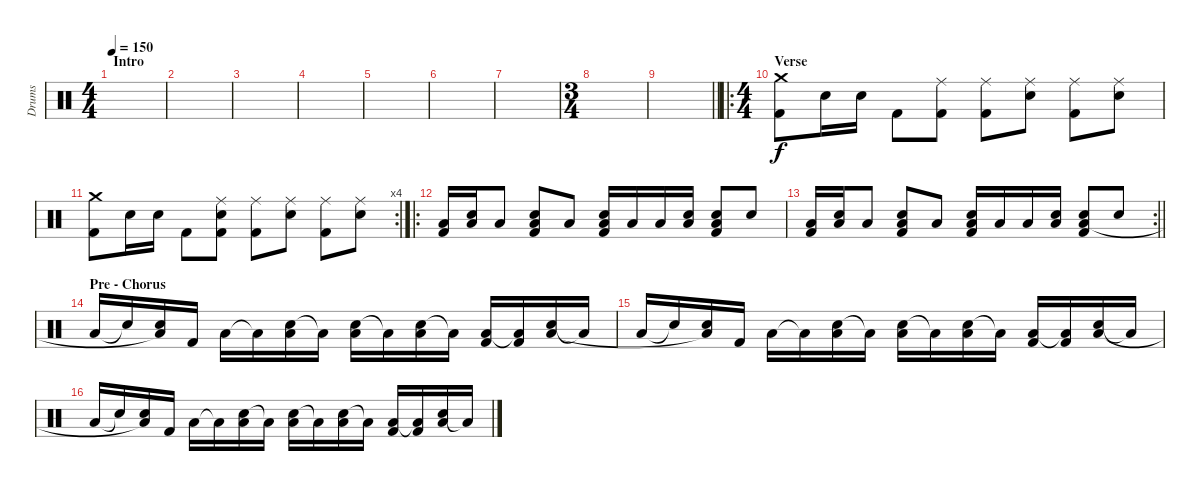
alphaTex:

\track ("Drums" "Drums") {instrument percussion}
\staff {score}
\articulation defaults
\ts (4 4)
\section ("" "Intro")
\tempo 150
\clef neutral
\ks c
|
|
|
|
|
|
|
\ts (3 4)
|
\barLineRight lightlight
|
\ro
\ts (4 4)
\section ("" "Verse")
("Crash medium (hit)" "Kick (hit) 2").8 "Electric Snare (hit)".16 "Snare (hit) 2".16 "Kick (hit) 2".8 ("Ride (middle)" "Kick (hit) 2").8 ("Ride (middle)" "Kick (hit) 2").8 ("Ride (middle)" "Electric Snare (hit)").8 ("Ride (middle)" "Kick (hit) 2").8 ("Ride (middle)" "Electric Snare (hit)").8 |
\rc 4
("Crash medium (hit)" "Kick (hit) 2").8 "Electric Snare (hit)".16 "Snare (hit) 2".16 "Kick (hit) 2".8 ("Ride (middle)" "Electric Snare (hit)" "Kick (hit) 2").8 ("Ride (middle)" "Kick (hit) 2").8 ("Ride (middle)" "Electric Snare (hit)").8 ("Ride (middle)" "Kick (hit) 2").8 ("Ride (middle)" "Electric Snare (hit)").8 |
\ro
("Low Floor Tom (hit)" "Kick (hit) 2").16 ("Electric Snare (hit)" "Low Floor Tom (hit)").16 "Low Floor Tom (hit)".8 ("Electric Snare (hit)" "Low Floor Tom (hit)" "Kick (hit) 2").8 "Low Floor Tom (hit)".8 ("Electric Snare (hit)" "Low Floor Tom (hit)" "Kick (hit) 2").16 "Low Floor Tom (hit)".16 "Low Floor Tom (hit)".16 ("Electric Snare (hit)" "Low Floor Tom (hit)").16 ("Snare (hit) 2" "Low Floor Tom (hit)" "Kick (hit) 2").8 "Electric Snare (hit)".8 |
\rc 2
\barLineRight lightlight
("Low Floor Tom (hit)" "Kick (hit) 2").16 ("Electric Snare (hit)" "Low Floor Tom (hit)").16 "Low Floor Tom (hit)".8 ("Electric Snare (hit)" "Low Floor Tom (hit)" "Kick (hit) 2").8 "Low Floor Tom (hit)".8 ("Electric Snare (hit)" "Low Floor Tom (hit)" "Kick (hit) 2").16 "Low Floor Tom (hit)".16 "Low Floor Tom (hit)".16 ("Electric Snare (hit)" "Low Floor Tom (hit)").16 ("Snare (hit) 2" "Low Floor Tom (hit)" "Kick (hit) 2").8 "Electric Snare (hit)".8 |
\section ("" "Pre - Chorus")
"Low Floor Tom (hit)".16 "Electric Snare (hit)"{t}.16 ("Electric Snare (hit)" "Low Floor Tom (hit)"{t}).16 "Kick (hit) 2".16 "Low Floor Tom (hit)".16 "Low Floor Tom (hit)"{t}.16 ("Electric Snare (hit)" "Low Floor Tom (hit)").16 "Low Floor Tom (hit)"{t}.16 ("Snare (hit) 2" "Low Floor Tom (hit)").16 "Low Floor Tom (hit)"{t}.16 ("Electric Snare (hit)" "Low Floor Tom (hit)").16 "Low Floor Tom (hit)"{t}.16 ("Kick (hit) 2" "Low Floor Tom (hit)").16 ("Kick (hit) 2" "Low Floor Tom (hit)"{t}).16 ("Electric Snare (hit)" "Low Floor Tom (hit)").16 "Low Floor Tom (hit)"{t}.16 |
"Low Floor Tom (hit)".16 "Electric Snare (hit)"{t}.16 ("Electric Snare (hit)" "Low Floor Tom (hit)"{t}).16 "Kick (hit) 2".16 "Low Floor Tom (hit)".16 "Low Floor Tom (hit)"{t}.16 ("Electric Snare (hit)" "Low Floor Tom (hit)").16 "Low Floor Tom (hit)"{t}.16 ("Snare (hit) 2" "Low Floor Tom (hit)").16 "Low Floor Tom (hit)"{t}.16 ("Electric Snare (hit)" "Low Floor Tom (hit)").16 "Low Floor Tom (hit)"{t}.16 ("Kick (hit) 2" "Low Floor Tom (hit)").16 ("Kick (hit) 2" "Low Floor Tom (hit)"{t}).16 ("Electric Snare (hit)" "Low Floor Tom (hit)").16 "Low Floor Tom (hit)"{t}.16 |
"Low Floor Tom (hit)".16 "Electric Snare (hit)"{t}.16 ("Electric Snare (hit)" "Low Floor Tom (hit)"{t}).16 "Kick (hit) 2".16 "Low Floor Tom (hit)".16 "Low Floor Tom (hit)"{t}.16 ("Electric Snare (hit)" "Low Floor Tom (hit)").16 "Low Floor Tom (hit)"{t}.16 ("Snare (hit) 2" "Low Floor Tom (hit)").16 "Low Floor Tom (hit)"{t}.16 ("Electric Snare (hit)" "Low Floor Tom (hit)").16 "Low Floor Tom (hit)"{t}.16 ("Kick (hit) 2" "Low Floor Tom (hit)").16 ("Kick (hit) 2" "Low Floor Tom (hit)"{t}).16 ("Electric Snare (hit)" "Low Floor Tom (hit)").16 "Low Floor Tom (hit)"{t}.16
